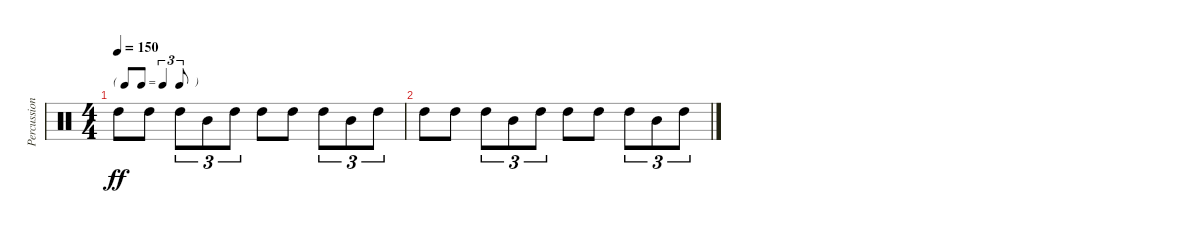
\track ("Percussion" "Percussion") {instrument percussion}
\staff {score}
\articulation defaults
\ts (4 4)
\tf triplet8th
\tempo 150
\clef neutral
\ks c "High Tom (hit)".8{dy ff} "High Tom (hit)".8 "High Tom (hit)".8{tu (3 2)} "Mid Tom (hit)".8{tu (3 2)} "High Tom (hit)".8{tu (3 2)} "High Tom (hit)".8 "High Tom (hit)".8 "High Tom (hit)".8{tu (3 2)} "Mid Tom (hit)".8{tu (3 2)} "High Tom (hit)".8{tu (3 2)}
|
"High Tom (hit)".8 "High Tom (hit)".8 "High Tom (hit)".8{tu (3 2)} "Mid Tom (hit)".8{tu (3 2)} "High Tom (hit)".8{tu (3 2)} "High Tom (hit)".8 "High Tom (hit)".8 "High Tom (hit)".8{tu (3 2)} "Mid Tom (hit)".8{tu (3 2)} "High Tom (hit)".8{tu (3 2)}
